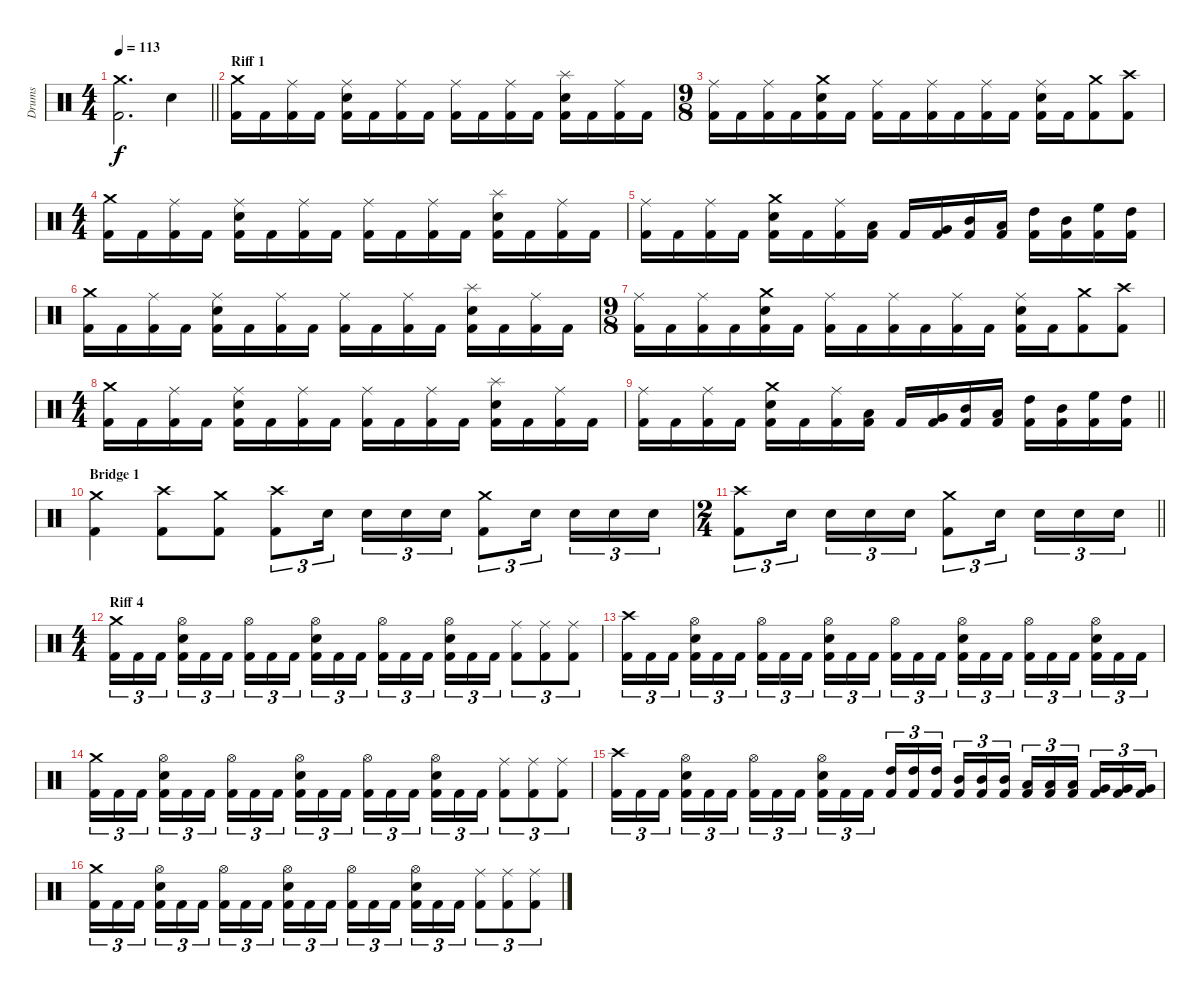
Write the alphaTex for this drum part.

\track ("Drums" "Drums") {instrument percussion}
\staff {score}
\articulation defaults
\ts (4 4)
\tempo 113
\clef neutral
\barLineRight lightlight
\ks c
("Crash medium (hit)" "Kick (hit) 2").2{d dy f} "Snare (hit) 2".4 |
\section ("" "Riff 1")
("Crash medium (hit)" "Kick (hit) 2").16 "Kick (hit) 2".16 ("Ride (middle)" "Kick (hit) 2").16 "Kick (hit) 2".16 ("Ride (middle)" "Snare (hit) 2" "Kick (hit) 2").16 "Kick (hit) 2".16 ("Ride (middle)" "Kick (hit) 2").16 "Kick (hit) 2".16 ("Ride (middle)" "Kick (hit) 2").16 "Kick (hit) 2".16 ("Ride (middle)" "Kick (hit) 2").16 "Kick (hit) 2".16 ("Splash (hit)" "Snare (hit) 2" "Kick (hit) 2").16 "Kick (hit) 2".16 ("Ride (middle)" "Kick (hit) 2").16 "Kick (hit) 2".16 |
\ts (9 8)
("Ride (middle)" "Kick (hit) 2").16 "Kick (hit) 2".16 ("Ride (middle)" "Kick (hit) 2").16 "Kick (hit) 2".16 ("Crash medium (hit)" "Snare (hit) 2" "Kick (hit) 2").16 "Kick (hit) 2".16 ("Ride (middle)" "Kick (hit) 2").16 "Kick (hit) 2".16 ("Ride (middle)" "Kick (hit) 2").16 "Kick (hit) 2".16 ("Ride (middle)" "Kick (hit) 2").16 "Kick (hit) 2".16 ("Ride (middle)" "Snare (hit) 2" "Kick (hit) 2").16 "Kick (hit) 2".16 ("Crash medium (hit)" "Kick (hit) 2").8 ("Crash high (hit)" "Kick (hit) 2").8 |
\ts (4 4)
("Crash medium (hit)" "Kick (hit) 2").16 "Kick (hit) 2".16 ("Ride (middle)" "Kick (hit) 2").16 "Kick (hit) 2".16 ("Ride (middle)" "Snare (hit) 2" "Kick (hit) 2").16 "Kick (hit) 2".16 ("Ride (middle)" "Kick (hit) 2").16 "Kick (hit) 2".16 ("Ride (middle)" "Kick (hit) 2").16 "Kick (hit) 2".16 ("Ride (middle)" "Kick (hit) 2").16 "Kick (hit) 2".16 ("Splash (hit)" "Snare (hit) 2" "Kick (hit) 2").16 "Kick (hit) 2".16 ("Ride (middle)" "Kick (hit) 2").16 "Kick (hit) 2".16 |
("Ride (middle)" "Kick (hit) 2").16 "Kick (hit) 2".16 ("Ride (middle)" "Kick (hit) 2").16 "Kick (hit) 2".16 ("Crash medium (hit)" "Snare (hit) 2" "Kick (hit) 2").16 "Kick (hit) 2".16 ("Ride (middle)" "Kick (hit) 2").16 ("Low Tom (hit)" "Kick (hit) 2").16 "Kick (hit) 2".16 ("Very Low Tom (hit)" "Kick (hit) 2").16 ("Mid Tom (hit)" "Kick (hit) 2").16 ("Low Tom (hit)" "Kick (hit) 2").16 ("High Tom (hit)" "Kick (hit) 2").16 ("Mid Tom (hit)" "Kick (hit) 2").16 ("High Floor Tom (hit)" "Kick (hit) 2").16 ("High Tom (hit)" "Kick (hit) 2").16 |
("Crash medium (hit)" "Kick (hit) 2").16 "Kick (hit) 2".16 ("Ride (middle)" "Kick (hit) 2").16 "Kick (hit) 2".16 ("Ride (middle)" "Snare (hit) 2" "Kick (hit) 2").16 "Kick (hit) 2".16 ("Ride (middle)" "Kick (hit) 2").16 "Kick (hit) 2".16 ("Ride (middle)" "Kick (hit) 2").16 "Kick (hit) 2".16 ("Ride (middle)" "Kick (hit) 2").16 "Kick (hit) 2".16 ("Splash (hit)" "Snare (hit) 2" "Kick (hit) 2").16 "Kick (hit) 2".16 ("Ride (middle)" "Kick (hit) 2").16 "Kick (hit) 2".16 |
\ts (9 8)
("Ride (middle)" "Kick (hit) 2").16 "Kick (hit) 2".16 ("Ride (middle)" "Kick (hit) 2").16 "Kick (hit) 2".16 ("Crash medium (hit)" "Snare (hit) 2" "Kick (hit) 2").16 "Kick (hit) 2".16 ("Ride (middle)" "Kick (hit) 2").16 "Kick (hit) 2".16 ("Ride (middle)" "Kick (hit) 2").16 "Kick (hit) 2".16 ("Ride (middle)" "Kick (hit) 2").16 "Kick (hit) 2".16 ("Ride (middle)" "Snare (hit) 2" "Kick (hit) 2").16 "Kick (hit) 2".16 ("Crash medium (hit)" "Kick (hit) 2").8 ("Crash high (hit)" "Kick (hit) 2").8 |
\ts (4 4)
("Crash medium (hit)" "Kick (hit) 2").16 "Kick (hit) 2".16 ("Ride (middle)" "Kick (hit) 2").16 "Kick (hit) 2".16 ("Ride (middle)" "Snare (hit) 2" "Kick (hit) 2").16 "Kick (hit) 2".16 ("Ride (middle)" "Kick (hit) 2").16 "Kick (hit) 2".16 ("Ride (middle)" "Kick (hit) 2").16 "Kick (hit) 2".16 ("Ride (middle)" "Kick (hit) 2").16 "Kick (hit) 2".16 ("Splash (hit)" "Snare (hit) 2" "Kick (hit) 2").16 "Kick (hit) 2".16 ("Ride (middle)" "Kick (hit) 2").16 "Kick (hit) 2".16 |
\barLineRight lightlight
("Ride (middle)" "Kick (hit) 2").16 "Kick (hit) 2".16 ("Ride (middle)" "Kick (hit) 2").16 "Kick (hit) 2".16 ("Crash medium (hit)" "Snare (hit) 2" "Kick (hit) 2").16 "Kick (hit) 2".16 ("Ride (middle)" "Kick (hit) 2").16 ("Low Tom (hit)" "Kick (hit) 2").16 "Kick (hit) 2".16 ("Very Low Tom (hit)" "Kick (hit) 2").16 ("Mid Tom (hit)" "Kick (hit) 2").16 ("Low Tom (hit)" "Kick (hit) 2").16 ("High Tom (hit)" "Kick (hit) 2").16 ("Mid Tom (hit)" "Kick (hit) 2").16 ("High Floor Tom (hit)" "Kick (hit) 2").16 ("High Tom (hit)" "Kick (hit) 2").16 |
\section ("" "Bridge 1")
("Crash medium (hit)" "Kick (hit) 2").4 ("Crash high (hit)" "Kick (hit) 2").8 ("Crash medium (hit)" "Kick (hit) 2").8 ("Crash high (hit)" "Kick (hit) 2").8{tu (3 2)} "Snare (hit) 2".16{tu (3 2) beam splitsecondary} "Snare (hit) 2".16{tu (3 2)} "Snare (hit) 2".16{tu (3 2)} "Snare (hit) 2".16{tu (3 2)} ("Crash medium (hit)" "Kick (hit) 2").8{tu (3 2)} "Snare (hit) 2".16{tu (3 2) beam splitsecondary} "Snare (hit) 2".16{tu (3 2)} "Snare (hit) 2".16{tu (3 2)} "Snare (hit) 2".16{tu (3 2)} |
\ts (2 4)
\barLineRight lightlight
("Crash high (hit)" "Kick (hit) 2").8{tu (3 2)} "Snare (hit) 2".16{tu (3 2) beam splitsecondary} "Snare (hit) 2".16{tu (3 2)} "Snare (hit) 2".16{tu (3 2)} "Snare (hit) 2".16{tu (3 2)} ("Crash medium (hit)" "Kick (hit) 2").8{tu (3 2)} "Snare (hit) 2".16{tu (3 2) beam splitsecondary} "Snare (hit) 2".16{tu (3 2)} "Snare (hit) 2".16{tu (3 2)} "Snare (hit) 2".16{tu (3 2)} |
\ts (4 4)
\section ("" "Riff 4")
("Crash medium (hit)" "Kick (hit) 2").16{tu (3 2)} "Kick (hit) 2".16{tu (3 2)} "Kick (hit) 2".16{tu (3 2) beam splitsecondary} ("Hi-Hat (open)" "Snare (hit) 2" "Kick (hit) 2").16{tu (3 2)} "Kick (hit) 2".16{tu (3 2)} "Kick (hit) 2".16{tu (3 2)} ("Hi-Hat (open)" "Kick (hit) 2").16{tu (3 2)} "Kick (hit) 2".16{tu (3 2)} "Kick (hit) 2".16{tu (3 2) beam splitsecondary} ("Hi-Hat (open)" "Snare (hit) 2" "Kick (hit) 2").16{tu (3 2)} "Kick (hit) 2".16{tu (3 2)} "Kick (hit) 2".16{tu (3 2)} ("Hi-Hat (open)" "Kick (hit) 2").16{tu (3 2)} "Kick (hit) 2".16{tu (3 2)} "Kick (hit) 2".16{tu (3 2) beam splitsecondary} ("Hi-Hat (open)" "Snare (hit) 2" "Kick (hit) 2").16{tu (3 2)} "Kick (hit) 2".16{tu (3 2)} "Kick (hit) 2".16{tu (3 2)} ("Ride (middle)" "Kick (hit) 2").8{tu (3 2)} ("Ride (middle)" "Kick (hit) 2").8{tu (3 2)} ("Ride (middle)" "Kick (hit) 2").8{tu (3 2)} |
("Crash high (hit)" "Kick (hit) 2").16{tu (3 2)} "Kick (hit) 2".16{tu (3 2)} "Kick (hit) 2".16{tu (3 2) beam splitsecondary} ("Hi-Hat (open)" "Snare (hit) 2" "Kick (hit) 2").16{tu (3 2)} "Kick (hit) 2".16{tu (3 2)} "Kick (hit) 2".16{tu (3 2)} ("Hi-Hat (open)" "Kick (hit) 2").16{tu (3 2)} "Kick (hit) 2".16{tu (3 2)} "Kick (hit) 2".16{tu (3 2) beam splitsecondary} ("Hi-Hat (open)" "Snare (hit) 2" "Kick (hit) 2").16{tu (3 2)} "Kick (hit) 2".16{tu (3 2)} "Kick (hit) 2".16{tu (3 2)} ("Hi-Hat (open)" "Kick (hit) 2").16{tu (3 2)} "Kick (hit) 2".16{tu (3 2)} "Kick (hit) 2".16{tu (3 2) beam splitsecondary} ("Hi-Hat (open)" "Snare (hit) 2" "Kick (hit) 2").16{tu (3 2)} "Kick (hit) 2".16{tu (3 2)} "Kick (hit) 2".16{tu (3 2)} ("Hi-Hat (open)" "Kick (hit) 2").16{tu (3 2)} "Kick (hit) 2".16{tu (3 2)} "Kick (hit) 2".16{tu (3 2) beam splitsecondary} ("Hi-Hat (open)" "Snare (hit) 2" "Kick (hit) 2").16{tu (3 2)} "Kick (hit) 2".16{tu (3 2)} "Kick (hit) 2".16{tu (3 2)} |
("Crash medium (hit)" "Kick (hit) 2").16{tu (3 2)} "Kick (hit) 2".16{tu (3 2)} "Kick (hit) 2".16{tu (3 2) beam splitsecondary} ("Hi-Hat (open)" "Snare (hit) 2" "Kick (hit) 2").16{tu (3 2)} "Kick (hit) 2".16{tu (3 2)} "Kick (hit) 2".16{tu (3 2)} ("Hi-Hat (open)" "Kick (hit) 2").16{tu (3 2)} "Kick (hit) 2".16{tu (3 2)} "Kick (hit) 2".16{tu (3 2) beam splitsecondary} ("Hi-Hat (open)" "Snare (hit) 2" "Kick (hit) 2").16{tu (3 2)} "Kick (hit) 2".16{tu (3 2)} "Kick (hit) 2".16{tu (3 2)} ("Hi-Hat (open)" "Kick (hit) 2").16{tu (3 2)} "Kick (hit) 2".16{tu (3 2)} "Kick (hit) 2".16{tu (3 2) beam splitsecondary} ("Hi-Hat (open)" "Snare (hit) 2" "Kick (hit) 2").16{tu (3 2)} "Kick (hit) 2".16{tu (3 2)} "Kick (hit) 2".16{tu (3 2)} ("Ride (middle)" "Kick (hit) 2").8{tu (3 2)} ("Ride (middle)" "Kick (hit) 2").8{tu (3 2)} ("Ride (middle)" "Kick (hit) 2").8{tu (3 2)} |
("Crash high (hit)" "Kick (hit) 2").16{tu (3 2)} "Kick (hit) 2".16{tu (3 2)} "Kick (hit) 2".16{tu (3 2) beam splitsecondary} ("Hi-Hat (open)" "Snare (hit) 2" "Kick (hit) 2").16{tu (3 2)} "Kick (hit) 2".16{tu (3 2)} "Kick (hit) 2".16{tu (3 2)} ("Hi-Hat (open)" "Kick (hit) 2").16{tu (3 2)} "Kick (hit) 2".16{tu (3 2)} "Kick (hit) 2".16{tu (3 2) beam splitsecondary} ("Hi-Hat (open)" "Snare (hit) 2" "Kick (hit) 2").16{tu (3 2)} "Kick (hit) 2".16{tu (3 2)} "Kick (hit) 2".16{tu (3 2)} ("High Tom (hit)" "Kick (hit) 2").16{tu (3 2)} ("High Tom (hit)" "Kick (hit) 2").16{tu (3 2)} ("High Tom (hit)" "Kick (hit) 2").16{tu (3 2) beam splitsecondary} ("Mid Tom (hit)" "Kick (hit) 2").16{tu (3 2)} ("Mid Tom (hit)" "Kick (hit) 2").16{tu (3 2)} ("Mid Tom (hit)" "Kick (hit) 2").16{tu (3 2)} ("Low Tom (hit)" "Kick (hit) 2").16{tu (3 2)} ("Low Tom (hit)" "Kick (hit) 2").16{tu (3 2)} ("Low Tom (hit)" "Kick (hit) 2").16{tu (3 2) beam splitsecondary} ("Very Low Tom (hit)" "Kick (hit) 2").16{tu (3 2)} ("Very Low Tom (hit)" "Kick (hit) 2").16{tu (3 2)} ("Very Low Tom (hit)" "Kick (hit) 2").16{tu (3 2)} |
("Crash medium (hit)" "Kick (hit) 2").16{tu (3 2)} "Kick (hit) 2".16{tu (3 2)} "Kick (hit) 2".16{tu (3 2) beam splitsecondary} ("Hi-Hat (open)" "Snare (hit) 2" "Kick (hit) 2").16{tu (3 2)} "Kick (hit) 2".16{tu (3 2)} "Kick (hit) 2".16{tu (3 2)} ("Hi-Hat (open)" "Kick (hit) 2").16{tu (3 2)} "Kick (hit) 2".16{tu (3 2)} "Kick (hit) 2".16{tu (3 2) beam splitsecondary} ("Hi-Hat (open)" "Snare (hit) 2" "Kick (hit) 2").16{tu (3 2)} "Kick (hit) 2".16{tu (3 2)} "Kick (hit) 2".16{tu (3 2)} ("Hi-Hat (open)" "Kick (hit) 2").16{tu (3 2)} "Kick (hit) 2".16{tu (3 2)} "Kick (hit) 2".16{tu (3 2) beam splitsecondary} ("Hi-Hat (open)" "Snare (hit) 2" "Kick (hit) 2").16{tu (3 2)} "Kick (hit) 2".16{tu (3 2)} "Kick (hit) 2".16{tu (3 2)} ("Ride (middle)" "Kick (hit) 2").8{tu (3 2)} ("Ride (middle)" "Kick (hit) 2").8{tu (3 2)} ("Ride (middle)" "Kick (hit) 2").8{tu (3 2)}
